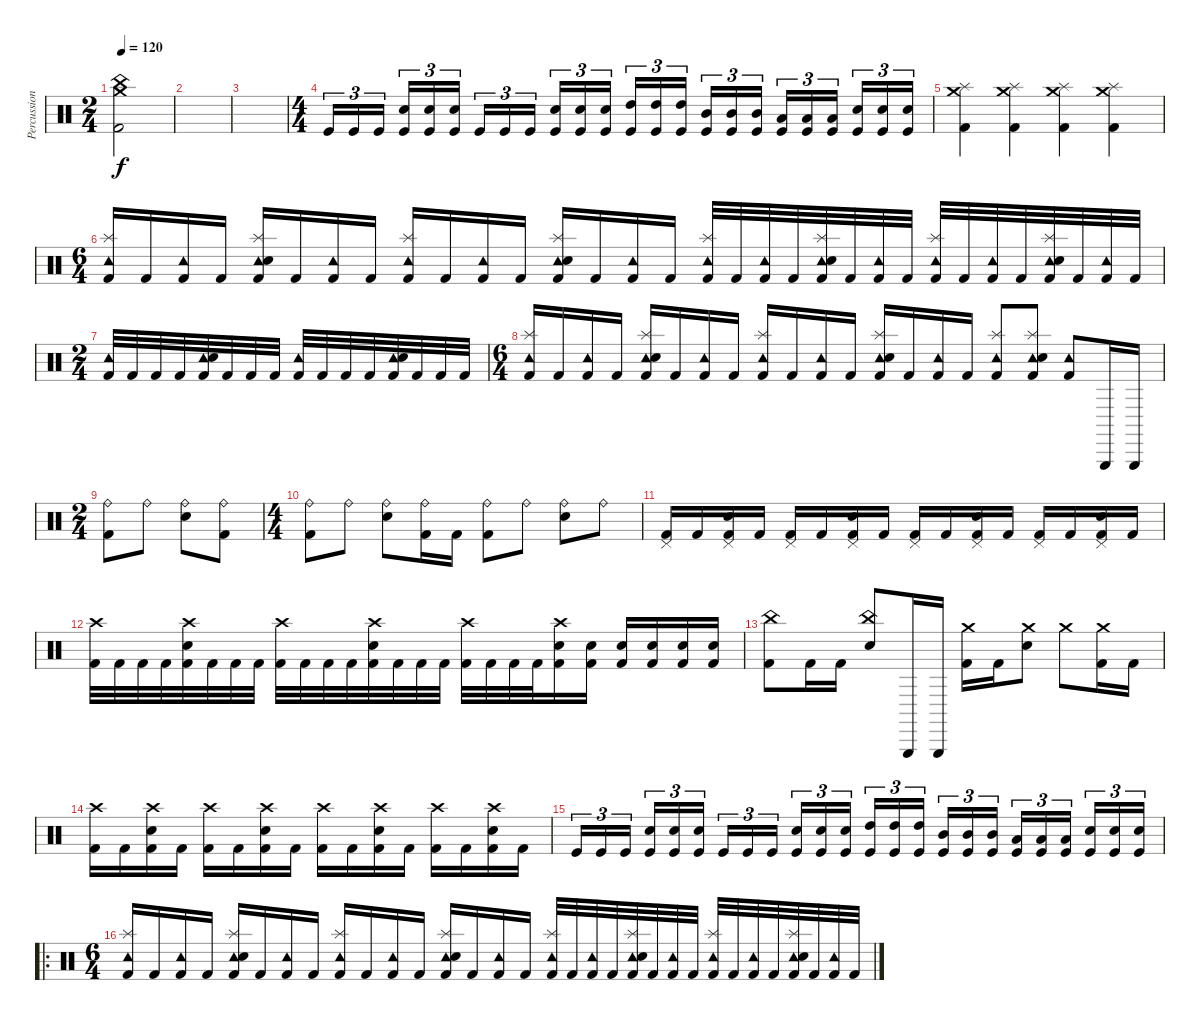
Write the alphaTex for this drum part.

\track ("Percussioni" "Percussion") {instrument percussion}
\staff {score}
\articulation defaults
\ts (2 4)
\tempo 120
\clef neutral
\ks c
("Kick (hit) 2" "China (hit)" "Crash medium (hit)").2{dy f} |
|
|
\ts (4 4)
"Kick (hit)".16{tu (3 2)} "Kick (hit)".16{tu (3 2)} "Kick (hit)".16{tu (3 2)} ("Snare (hit) 2" "Kick (hit)").16{tu (3 2)} ("Snare (hit) 2" "Kick (hit)").16{tu (3 2)} ("Snare (hit) 2" "Kick (hit)").16{tu (3 2)} "Kick (hit)".16{tu (3 2)} "Kick (hit)".16{tu (3 2)} "Kick (hit)".16{tu (3 2)} ("Snare (hit) 2" "Kick (hit)").16{tu (3 2)} ("Snare (hit) 2" "Kick (hit)").16{tu (3 2)} ("Snare (hit) 2" "Kick (hit)").16{tu (3 2)} ("High Tom (hit)" "Kick (hit)").16{tu (3 2)} ("High Tom (hit)" "Kick (hit)").16{tu (3 2)} ("High Tom (hit)" "Kick (hit)").16{tu (3 2)} ("Mid Tom (hit)" "Kick (hit)").16{tu (3 2)} ("Mid Tom (hit)" "Kick (hit)").16{tu (3 2)} ("Mid Tom (hit)" "Kick (hit)").16{tu (3 2)} ("Low Tom (hit)" "Kick (hit)").16{tu (3 2)} ("Low Tom (hit)" "Kick (hit)").16{tu (3 2)} ("Low Tom (hit)" "Kick (hit)").16{tu (3 2)} ("Snare (hit) 2" "Kick (hit)").16{tu (3 2)} ("Snare (hit) 2" "Kick (hit)").16{tu (3 2)} ("Snare (hit) 2" "Kick (hit)").16{tu (3 2)} |
("Splash (hit)" "Crash medium (hit)" "Kick (hit) 2").4 ("Splash (hit)" "Crash medium (hit)" "Kick (hit) 2").4 ("Splash (hit)" "Crash medium (hit)" "Kick (hit) 2").4 ("Splash (hit)" "Crash medium (hit)" "Kick (hit) 2").4 |
\ts (6 4)
("Tambourine (hit)" "Splash (hit)" "Kick (hit) 2").16 "Kick (hit) 2".16 ("Tambourine (hit)" "Kick (hit) 2").16 "Kick (hit) 2".16 ("Tambourine (hit)" "Splash (hit)" "Snare (hit) 2" "Kick (hit) 2").16 "Kick (hit) 2".16 ("Tambourine (hit)" "Kick (hit) 2").16 "Kick (hit) 2".16 ("Tambourine (hit)" "Splash (hit)" "Kick (hit) 2").16 "Kick (hit) 2".16 ("Tambourine (hit)" "Kick (hit) 2").16 "Kick (hit) 2".16 ("Tambourine (hit)" "Splash (hit)" "Snare (hit) 2" "Kick (hit) 2").16 "Kick (hit) 2".16 ("Tambourine (hit)" "Kick (hit) 2").16 "Kick (hit) 2".16 ("Tambourine (hit)" "Splash (hit)" "Kick (hit) 2").32 "Kick (hit) 2".32 ("Tambourine (hit)" "Kick (hit) 2").32 "Kick (hit) 2".32 ("Tambourine (hit)" "Splash (hit)" "Snare (hit) 2" "Kick (hit) 2").32 "Kick (hit) 2".32 ("Tambourine (hit)" "Kick (hit) 2").32 "Kick (hit) 2".32 ("Tambourine (hit)" "Splash (hit)" "Kick (hit) 2").32 "Kick (hit) 2".32 ("Tambourine (hit)" "Kick (hit) 2").32 "Kick (hit) 2".32 ("Tambourine (hit)" "Splash (hit)" "Snare (hit) 2" "Kick (hit) 2").32 "Kick (hit) 2".32 ("Tambourine (hit)" "Kick (hit) 2").32 "Kick (hit) 2".32 |
\ts (2 4)
("Tambourine (hit)" "Kick (hit) 2").32 "Kick (hit) 2".32 "Kick (hit) 2".32 "Kick (hit) 2".32 ("Tambourine (hit)" "Snare (hit) 2" "Kick (hit) 2").32 "Kick (hit) 2".32 "Kick (hit) 2".32 "Kick (hit) 2".32 ("Tambourine (hit)" "Kick (hit) 2").32 "Kick (hit) 2".32 "Kick (hit) 2".32 "Kick (hit) 2".32 ("Tambourine (hit)" "Snare (hit) 2" "Kick (hit) 2").32 "Kick (hit) 2".32 "Kick (hit) 2".32 "Kick (hit) 2".32 |
\ts (6 4)
("Tambourine (hit)" "Splash (hit)" "Kick (hit) 2").16 "Kick (hit) 2".16 ("Tambourine (hit)" "Kick (hit) 2").16 "Kick (hit) 2".16 ("Tambourine (hit)" "Splash (hit)" "Snare (hit) 2" "Kick (hit) 2").16 "Kick (hit) 2".16 ("Tambourine (hit)" "Kick (hit) 2").16 "Kick (hit) 2".16 ("Tambourine (hit)" "Splash (hit)" "Kick (hit) 2").16 "Kick (hit) 2".16 ("Tambourine (hit)" "Kick (hit) 2").16 "Kick (hit) 2".16 ("Tambourine (hit)" "Splash (hit)" "Snare (hit) 2" "Kick (hit) 2").16 "Kick (hit) 2".16 ("Tambourine (hit)" "Kick (hit) 2").16 "Kick (hit) 2".16 ("Tambourine (hit)" "Splash (hit)" "Kick (hit) 2").8 ("Tambourine (hit)" "Splash (hit)" "Snare (hit) 2" "Kick (hit) 2").8 ("Tambourine (hit)" "Kick (hit) 2").8 "Triangle (hit)".16 "Triangle (hit)".16 |
\ts (2 4)
("Ride (bell)" "Kick (hit) 2").8 "Ride (bell)".8 ("Ride (bell)" "Snare (hit) 2").8 ("Ride (bell)" "Kick (hit) 2").8 |
\ts (4 4)
("Ride (bell)" "Kick (hit) 2").8 "Ride (bell)".8 ("Ride (bell)" "Snare (hit) 2").8 ("Ride (bell)" "Kick (hit) 2").16 "Kick (hit) 2".16 ("Ride (bell)" "Kick (hit) 2").8 "Ride (bell)".8 ("Ride (bell)" "Snare (hit) 2").8 "Ride (bell)".8 |
("Pedal Hi-Hat (hit)" "Kick (hit) 2").16 "Kick (hit) 2".16 ("Pedal Hi-Hat (hit)" "Snare (hit) 2" "Kick (hit) 2").16 "Kick (hit) 2".16 ("Pedal Hi-Hat (hit)" "Kick (hit) 2").16 "Kick (hit) 2".16 ("Pedal Hi-Hat (hit)" "Snare (hit) 2" "Kick (hit) 2").16 "Kick (hit) 2".16 ("Pedal Hi-Hat (hit)" "Kick (hit) 2").16 "Kick (hit) 2".16 ("Pedal Hi-Hat (hit)" "Snare (hit) 2" "Kick (hit) 2").16 "Kick (hit) 2".16 ("Pedal Hi-Hat (hit)" "Kick (hit) 2").16 "Kick (hit) 2".16 ("Pedal Hi-Hat (hit)" "Snare (hit) 2" "Kick (hit) 2").16 "Kick (hit) 2".16 |
("Crash high (hit)" "Kick (hit) 2").32 "Kick (hit) 2".32 "Kick (hit) 2".32 "Kick (hit) 2".32 ("Crash high (hit)" "Snare (hit) 2" "Kick (hit) 2").32 "Kick (hit) 2".32 "Kick (hit) 2".32 "Kick (hit) 2".32 ("Crash high (hit)" "Kick (hit) 2").32 "Kick (hit) 2".32 "Kick (hit) 2".32 "Kick (hit) 2".32 ("Crash high (hit)" "Snare (hit) 2" "Kick (hit) 2").32 "Kick (hit) 2".32 "Kick (hit) 2".32 "Kick (hit) 2".32 ("Crash high (hit)" "Kick (hit) 2").32 "Kick (hit) 2".32 "Kick (hit) 2".32 "Kick (hit) 2".32 ("Crash high (hit)" "Snare (hit) 2" "Kick (hit) 2").16 ("Snare (hit) 2" "Kick (hit) 2").16 ("Snare (hit) 2" "Kick (hit) 2").16 ("Snare (hit) 2" "Kick (hit) 2").16 ("Snare (hit) 2" "Kick (hit) 2").16 ("Snare (hit) 2" "Kick (hit) 2").16 |
("China (hit)" "Kick (hit) 2").8 "Kick (hit) 2".16 "Kick (hit) 2".16 ("China (hit)" "Snare (hit) 2").8 "Triangle (hit)".16 "Triangle (hit)".16 ("Crash medium (hit)" "Kick (hit) 2").16 "Kick (hit) 2".16 ("Crash medium (hit)" "Snare (hit) 2").8 "Crash medium (hit)".8 ("Crash medium (hit)" "Kick (hit) 2").16 "Kick (hit) 2".16 |
("Crash high (hit)" "Kick (hit) 2").16 "Kick (hit) 2".16 ("Crash high (hit)" "Snare (hit) 2" "Kick (hit) 2").16 "Kick (hit) 2".16 ("Crash high (hit)" "Kick (hit) 2").16 "Kick (hit) 2".16 ("Crash high (hit)" "Snare (hit) 2" "Kick (hit) 2").16 "Kick (hit) 2".16 ("Crash high (hit)" "Kick (hit) 2").16 "Kick (hit) 2".16 ("Crash high (hit)" "Snare (hit) 2" "Kick (hit) 2").16 "Kick (hit) 2".16 ("Crash high (hit)" "Kick (hit) 2").16 "Kick (hit) 2".16 ("Crash high (hit)" "Snare (hit) 2" "Kick (hit) 2").16 "Kick (hit) 2".16 |
"Kick (hit)".16{tu (3 2)} "Kick (hit)".16{tu (3 2)} "Kick (hit)".16{tu (3 2)} ("Snare (hit) 2" "Kick (hit)").16{tu (3 2)} ("Snare (hit) 2" "Kick (hit)").16{tu (3 2)} ("Snare (hit) 2" "Kick (hit)").16{tu (3 2)} "Kick (hit)".16{tu (3 2)} "Kick (hit)".16{tu (3 2)} "Kick (hit)".16{tu (3 2)} ("Snare (hit) 2" "Kick (hit)").16{tu (3 2)} ("Snare (hit) 2" "Kick (hit)").16{tu (3 2)} ("Snare (hit) 2" "Kick (hit)").16{tu (3 2)} ("High Tom (hit)" "Kick (hit)").16{tu (3 2)} ("High Tom (hit)" "Kick (hit)").16{tu (3 2)} ("High Tom (hit)" "Kick (hit)").16{tu (3 2)} ("Mid Tom (hit)" "Kick (hit)").16{tu (3 2)} ("Mid Tom (hit)" "Kick (hit)").16{tu (3 2)} ("Mid Tom (hit)" "Kick (hit)").16{tu (3 2)} ("Low Tom (hit)" "Kick (hit)").16{tu (3 2)} ("Low Tom (hit)" "Kick (hit)").16{tu (3 2)} ("Low Tom (hit)" "Kick (hit)").16{tu (3 2)} ("Snare (hit) 2" "Kick (hit)").16{tu (3 2)} ("Snare (hit) 2" "Kick (hit)").16{tu (3 2)} ("Snare (hit) 2" "Kick (hit)").16{tu (3 2)} |
\ro
\ts (6 4)
("Tambourine (hit)" "Splash (hit)" "Kick (hit) 2").16 "Kick (hit) 2".16 ("Tambourine (hit)" "Kick (hit) 2").16 "Kick (hit) 2".16 ("Tambourine (hit)" "Splash (hit)" "Snare (hit) 2" "Kick (hit) 2").16 "Kick (hit) 2".16 ("Tambourine (hit)" "Kick (hit) 2").16 "Kick (hit) 2".16 ("Tambourine (hit)" "Splash (hit)" "Kick (hit) 2").16 "Kick (hit) 2".16 ("Tambourine (hit)" "Kick (hit) 2").16 "Kick (hit) 2".16 ("Tambourine (hit)" "Splash (hit)" "Snare (hit) 2" "Kick (hit) 2").16 "Kick (hit) 2".16 ("Tambourine (hit)" "Kick (hit) 2").16 "Kick (hit) 2".16 ("Tambourine (hit)" "Splash (hit)" "Kick (hit) 2").32 "Kick (hit) 2".32 ("Tambourine (hit)" "Kick (hit) 2").32 "Kick (hit) 2".32 ("Tambourine (hit)" "Splash (hit)" "Snare (hit) 2" "Kick (hit) 2").32 "Kick (hit) 2".32 ("Tambourine (hit)" "Kick (hit) 2").32 "Kick (hit) 2".32 ("Tambourine (hit)" "Splash (hit)" "Kick (hit) 2").32 "Kick (hit) 2".32 ("Tambourine (hit)" "Kick (hit) 2").32 "Kick (hit) 2".32 ("Tambourine (hit)" "Splash (hit)" "Snare (hit) 2" "Kick (hit) 2").32 "Kick (hit) 2".32 ("Tambourine (hit)" "Kick (hit) 2").32 "Kick (hit) 2".32
